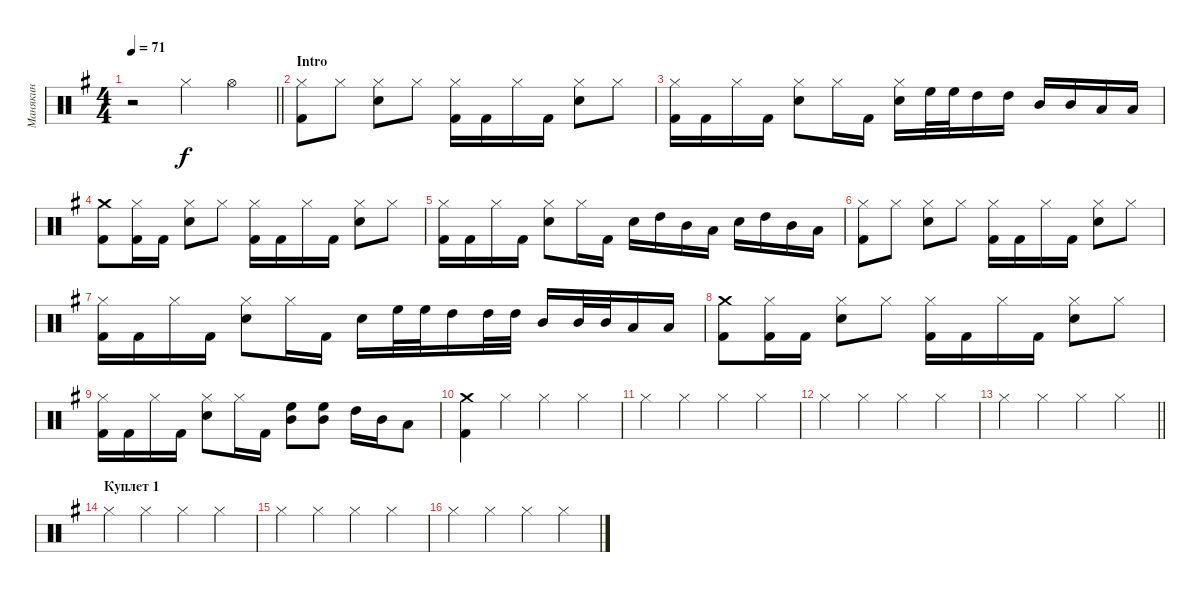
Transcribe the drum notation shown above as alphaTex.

\track ("Манякин" "Манякин") {instrument percussion}
\staff {score}
\articulation defaults
\ts (4 4)
\tempo 71
\clef neutral
\barLineRight lightlight
\ks eminor
r.2{dy f} "Hi-Hat (closed)".4 "Hi-Hat (open)".4 |
\section ("" "Intro")
("Hi-Hat (closed)" "Kick (hit) 2").8 "Hi-Hat (closed)".8 ("Hi-Hat (closed)" "Snare (hit) 2").8 "Hi-Hat (closed)".8 ("Hi-Hat (closed)" "Kick (hit) 2").16 "Kick (hit) 2".16 "Hi-Hat (closed)".16 "Kick (hit) 2".16 ("Hi-Hat (closed)" "Snare (hit) 2").8 "Hi-Hat (closed)".8 |
("Hi-Hat (closed)" "Kick (hit) 2").16 "Kick (hit) 2".16 "Hi-Hat (closed)".16 "Kick (hit) 2".16 ("Hi-Hat (closed)" "Snare (hit) 2").8 "Hi-Hat (closed)".16 "Kick (hit) 2".16 ("Hi-Hat (closed)" "Snare (hit) 2").16 "High Floor Tom (hit)".32 "High Floor Tom (hit)".32 "High Tom (hit)".16 "High Tom (hit)".16 "Mid Tom (hit)".16 "Mid Tom (hit)".16 "Low Tom (hit)".16 "Low Tom (hit)".16 |
("Crash medium (hit)" "Kick (hit) 2").8 ("Hi-Hat (closed)" "Kick (hit) 2").16 "Kick (hit) 2".16 ("Hi-Hat (closed)" "Snare (hit) 2").8 "Hi-Hat (closed)".8 ("Hi-Hat (closed)" "Kick (hit) 2").16 "Kick (hit) 2".16 "Hi-Hat (closed)".16 "Kick (hit) 2".16 ("Hi-Hat (closed)" "Snare (hit) 2").8 "Hi-Hat (closed)".8 |
("Hi-Hat (closed)" "Kick (hit) 2").16 "Kick (hit) 2".16 "Hi-Hat (closed)".16 "Kick (hit) 2".16 ("Hi-Hat (closed)" "Snare (hit) 2").8 "Hi-Hat (closed)".16 "Kick (hit) 2".16 "Snare (hit) 2".16 "High Tom (hit)".16 "Mid Tom (hit)".16 "Low Tom (hit)".16 "Snare (hit) 2".16 "High Tom (hit)".16 "Mid Tom (hit)".16 "Low Tom (hit)".16 |
("Hi-Hat (closed)" "Kick (hit) 2").8 "Hi-Hat (closed)".8 ("Hi-Hat (closed)" "Snare (hit) 2").8 "Hi-Hat (closed)".8 ("Hi-Hat (closed)" "Kick (hit) 2").16 "Kick (hit) 2".16 "Hi-Hat (closed)".16 "Kick (hit) 2".16 ("Hi-Hat (closed)" "Snare (hit) 2").8 "Hi-Hat (closed)".8 |
("Hi-Hat (closed)" "Kick (hit) 2").16 "Kick (hit) 2".16 "Hi-Hat (closed)".16 "Kick (hit) 2".16 ("Hi-Hat (closed)" "Snare (hit) 2").8 "Hi-Hat (closed)".16 "Kick (hit) 2".16 "Snare (hit) 2".16 "High Floor Tom (hit)".32 "High Floor Tom (hit)".32 "High Tom (hit)".16 "High Tom (hit)".32 "High Tom (hit)".32 "Mid Tom (hit)".16 "Mid Tom (hit)".32 "Mid Tom (hit)".32 "Low Tom (hit)".16 "Low Tom (hit)".16 |
("Crash medium (hit)" "Kick (hit) 2").8 ("Hi-Hat (closed)" "Kick (hit) 2").16 "Kick (hit) 2".16 ("Hi-Hat (closed)" "Snare (hit) 2").8 "Hi-Hat (closed)".8 ("Hi-Hat (closed)" "Kick (hit) 2").16 "Kick (hit) 2".16 "Hi-Hat (closed)".16 "Kick (hit) 2".16 ("Hi-Hat (closed)" "Snare (hit) 2").8 "Hi-Hat (closed)".8 |
("Hi-Hat (closed)" "Kick (hit) 2").16 "Kick (hit) 2".16 "Hi-Hat (closed)".16 "Kick (hit) 2".16 ("Hi-Hat (closed)" "Snare (hit) 2").8 "Hi-Hat (closed)".16 "Kick (hit) 2".16 ("High Floor Tom (hit)" "Mid Tom (hit)").8 ("High Floor Tom (hit)" "Mid Tom (hit)").8 "High Tom (hit)".16 "Mid Tom (hit)".16 "Low Tom (hit)".8 |
("Crash medium (hit)" "Kick (hit) 2").4 "Hi-Hat (closed)".4 "Hi-Hat (closed)".4 "Hi-Hat (closed)".4 |
"Hi-Hat (closed)".4 "Hi-Hat (closed)".4 "Hi-Hat (closed)".4 "Hi-Hat (closed)".4 |
"Hi-Hat (closed)".4 "Hi-Hat (closed)".4 "Hi-Hat (closed)".4 "Hi-Hat (closed)".4 |
\barLineRight lightlight "Hi-Hat (closed)".4 "Hi-Hat (closed)".4 "Hi-Hat (closed)".4 "Hi-Hat (closed)".4
|
\section ("" "Куплет 1")
"Hi-Hat (closed)".4 "Hi-Hat (closed)".4 "Hi-Hat (closed)".4 "Hi-Hat (closed)".4 |
"Hi-Hat (closed)".4 "Hi-Hat (closed)".4 "Hi-Hat (closed)".4 "Hi-Hat (closed)".4 |
"Hi-Hat (closed)".4 "Hi-Hat (closed)".4 "Hi-Hat (closed)".4 "Hi-Hat (closed)".4
